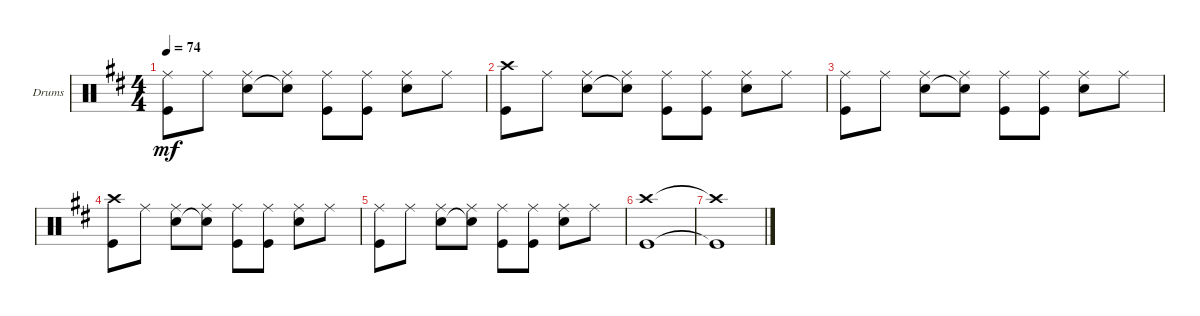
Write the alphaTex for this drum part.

\bracketExtendMode groupsimilarinstruments
\firstSystemTrackNameOrientation horizontal
\otherSystemsTrackNameOrientation horizontal
\track ("Drumkit" "Drums") {instrument percussion}
\staff {score}
\articulation defaults
\ts (4 4)
\tempo 74
\clef neutral
\scale
0.333333
\ks d
("Kick (hit)" "Ride (middle)").8{dy mf} "Ride (middle)".8 ("Snare (hit) 2" "Ride (middle)").8 ("Snare (hit) 2"{t} "Ride (middle)").8 ("Kick (hit)" "Ride (middle)").8 ("Kick (hit)" "Ride (middle)").8 ("Snare (hit) 2" "Ride (middle)").8 "Ride (middle)".8 |
\scale
0.333333 ("Kick (hit)" "Crash high (hit)").8 "Ride (middle)".8 ("Snare (hit) 2" "Ride (middle)").8 ("Snare (hit) 2"{t} "Ride (middle)").8 ("Kick (hit)" "Ride (middle)").8 ("Kick (hit)" "Ride (middle)").8 ("Snare (hit) 2" "Ride (middle)").8 "Ride (middle)".8 |
\scale
0.333333 ("Kick (hit)" "Ride (middle)").8 "Ride (middle)".8 ("Snare (hit) 2" "Ride (middle)").8 ("Snare (hit) 2"{t} "Ride (middle)").8 ("Kick (hit)" "Ride (middle)").8 ("Kick (hit)" "Ride (middle)").8 ("Snare (hit) 2" "Ride (middle)").8 "Ride (middle)".8 |
\scale
0.333333 ("Kick (hit)" "Crash high (hit)").8 "Ride (middle)".8 ("Snare (hit) 2" "Ride (middle)").8 ("Snare (hit) 2"{t} "Ride (middle)").8 ("Kick (hit)" "Ride (middle)").8 ("Kick (hit)" "Ride (middle)").8 ("Snare (hit) 2" "Ride (middle)").8 "Ride (middle)".8 |
("Kick (hit)" "Ride (middle)").8 "Ride (middle)".8 ("Snare (hit) 2" "Ride (middle)").8 ("Snare (hit) 2"{t} "Ride (middle)").8 ("Kick (hit)" "Ride (middle)").8 ("Kick (hit)" "Ride (middle)").8 ("Snare (hit) 2" "Ride (middle)").8 "Ride (middle)".8 |
("Kick (hit)" "Crash high (hit)").1 |
("Kick (hit)"{t} "Crash high (hit)"{t}).1
